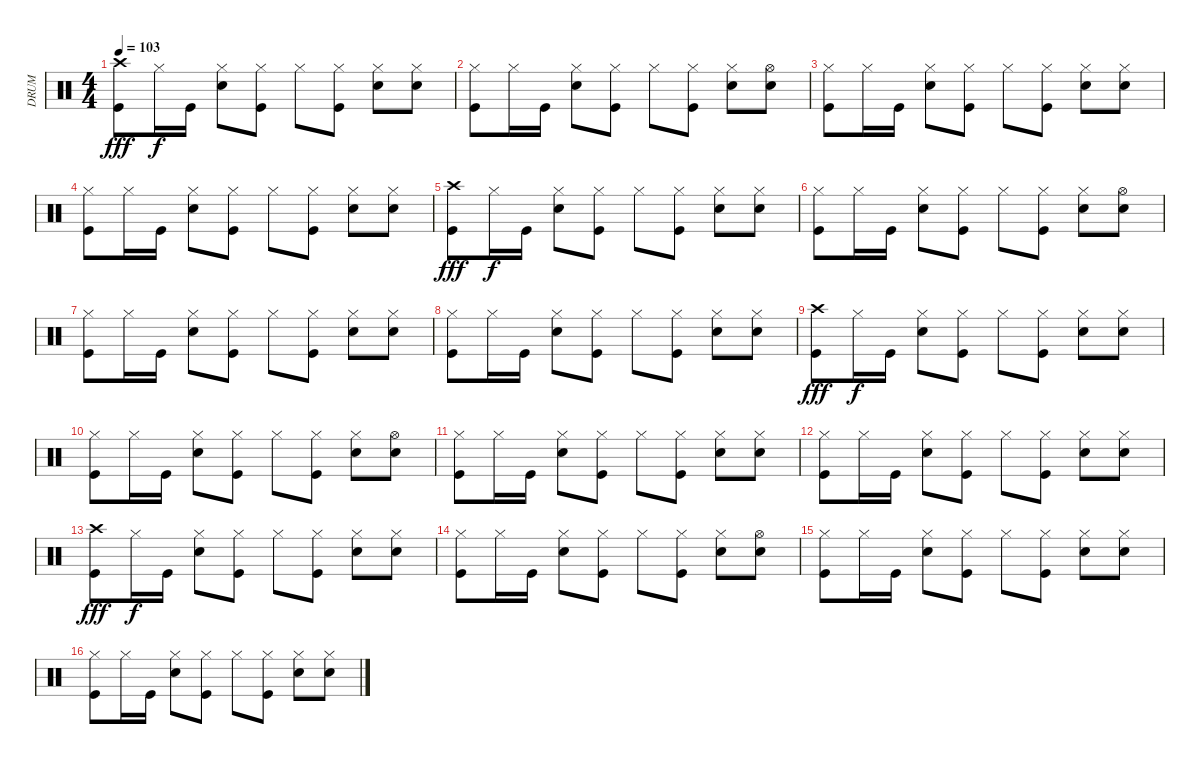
\track ("DRUM" "DRUM") {instrument percussion}
\staff {score}
\articulation defaults
\ts (4 4)
\tempo 103
\clef neutral
\ks c
("Crash high (hit)" "Kick (hit)").8{dy fff} "Hi-Hat (closed)".16{dy f} "Kick (hit)".16 ("Snare (hit) 2" "Hi-Hat (closed)").8 ("Hi-Hat (closed)" "Kick (hit)").8 "Hi-Hat (closed)".8 ("Hi-Hat (closed)" "Kick (hit)").8 ("Snare (hit) 2" "Hi-Hat (closed)").8 ("Snare (hit) 2" "Hi-Hat (closed)").8 |
("Hi-Hat (closed)" "Kick (hit)").8 "Hi-Hat (closed)".16 "Kick (hit)".16 ("Snare (hit) 2" "Hi-Hat (closed)").8 ("Hi-Hat (closed)" "Kick (hit)").8 "Hi-Hat (closed)".8 ("Hi-Hat (closed)" "Kick (hit)").8 ("Snare (hit) 2" "Hi-Hat (closed)").8 ("Snare (hit) 2" "Hi-Hat (open)").8 |
("Hi-Hat (closed)" "Kick (hit)").8 "Hi-Hat (closed)".16 "Kick (hit)".16 ("Snare (hit) 2" "Hi-Hat (closed)").8 ("Hi-Hat (closed)" "Kick (hit)").8 "Hi-Hat (closed)".8 ("Hi-Hat (closed)" "Kick (hit)").8 ("Snare (hit) 2" "Hi-Hat (closed)").8 ("Snare (hit) 2" "Hi-Hat (closed)").8 |
("Hi-Hat (closed)" "Kick (hit)").8 "Hi-Hat (closed)".16 "Kick (hit)".16 ("Snare (hit) 2" "Hi-Hat (closed)").8 ("Hi-Hat (closed)" "Kick (hit)").8 "Hi-Hat (closed)".8 ("Hi-Hat (closed)" "Kick (hit)").8 ("Snare (hit) 2" "Hi-Hat (closed)").8 ("Snare (hit) 2" "Hi-Hat (closed)").8 |
("Crash high (hit)" "Kick (hit)").8{dy fff} "Hi-Hat (closed)".16{dy f} "Kick (hit)".16 ("Snare (hit) 2" "Hi-Hat (closed)").8 ("Hi-Hat (closed)" "Kick (hit)").8 "Hi-Hat (closed)".8 ("Hi-Hat (closed)" "Kick (hit)").8 ("Snare (hit) 2" "Hi-Hat (closed)").8 ("Snare (hit) 2" "Hi-Hat (closed)").8 |
("Hi-Hat (closed)" "Kick (hit)").8 "Hi-Hat (closed)".16 "Kick (hit)".16 ("Snare (hit) 2" "Hi-Hat (closed)").8 ("Hi-Hat (closed)" "Kick (hit)").8 "Hi-Hat (closed)".8 ("Hi-Hat (closed)" "Kick (hit)").8 ("Snare (hit) 2" "Hi-Hat (closed)").8 ("Snare (hit) 2" "Hi-Hat (open)").8 |
("Hi-Hat (closed)" "Kick (hit)").8 "Hi-Hat (closed)".16 "Kick (hit)".16 ("Snare (hit) 2" "Hi-Hat (closed)").8 ("Hi-Hat (closed)" "Kick (hit)").8 "Hi-Hat (closed)".8 ("Hi-Hat (closed)" "Kick (hit)").8 ("Snare (hit) 2" "Hi-Hat (closed)").8 ("Snare (hit) 2" "Hi-Hat (closed)").8 |
("Hi-Hat (closed)" "Kick (hit)").8 "Hi-Hat (closed)".16 "Kick (hit)".16 ("Snare (hit) 2" "Hi-Hat (closed)").8 ("Hi-Hat (closed)" "Kick (hit)").8 "Hi-Hat (closed)".8 ("Hi-Hat (closed)" "Kick (hit)").8 ("Snare (hit) 2" "Hi-Hat (closed)").8 ("Snare (hit) 2" "Hi-Hat (closed)").8 |
("Crash high (hit)" "Kick (hit)").8{dy fff} "Hi-Hat (closed)".16{dy f} "Kick (hit)".16 ("Snare (hit) 2" "Hi-Hat (closed)").8 ("Hi-Hat (closed)" "Kick (hit)").8 "Hi-Hat (closed)".8 ("Hi-Hat (closed)" "Kick (hit)").8 ("Snare (hit) 2" "Hi-Hat (closed)").8 ("Snare (hit) 2" "Hi-Hat (closed)").8 |
("Hi-Hat (closed)" "Kick (hit)").8 "Hi-Hat (closed)".16 "Kick (hit)".16 ("Snare (hit) 2" "Hi-Hat (closed)").8 ("Hi-Hat (closed)" "Kick (hit)").8 "Hi-Hat (closed)".8 ("Hi-Hat (closed)" "Kick (hit)").8 ("Snare (hit) 2" "Hi-Hat (closed)").8 ("Snare (hit) 2" "Hi-Hat (open)").8 |
("Hi-Hat (closed)" "Kick (hit)").8 "Hi-Hat (closed)".16 "Kick (hit)".16 ("Snare (hit) 2" "Hi-Hat (closed)").8 ("Hi-Hat (closed)" "Kick (hit)").8 "Hi-Hat (closed)".8 ("Hi-Hat (closed)" "Kick (hit)").8 ("Snare (hit) 2" "Hi-Hat (closed)").8 ("Snare (hit) 2" "Hi-Hat (closed)").8 |
("Hi-Hat (closed)" "Kick (hit)").8 "Hi-Hat (closed)".16 "Kick (hit)".16 ("Snare (hit) 2" "Hi-Hat (closed)").8 ("Hi-Hat (closed)" "Kick (hit)").8 "Hi-Hat (closed)".8 ("Hi-Hat (closed)" "Kick (hit)").8 ("Snare (hit) 2" "Hi-Hat (closed)").8 ("Snare (hit) 2" "Hi-Hat (closed)").8 |
("Crash high (hit)" "Kick (hit)").8{dy fff} "Hi-Hat (closed)".16{dy f} "Kick (hit)".16 ("Snare (hit) 2" "Hi-Hat (closed)").8 ("Hi-Hat (closed)" "Kick (hit)").8 "Hi-Hat (closed)".8 ("Hi-Hat (closed)" "Kick (hit)").8 ("Snare (hit) 2" "Hi-Hat (closed)").8 ("Snare (hit) 2" "Hi-Hat (closed)").8 |
("Hi-Hat (closed)" "Kick (hit)").8 "Hi-Hat (closed)".16 "Kick (hit)".16 ("Snare (hit) 2" "Hi-Hat (closed)").8 ("Hi-Hat (closed)" "Kick (hit)").8 "Hi-Hat (closed)".8 ("Hi-Hat (closed)" "Kick (hit)").8 ("Snare (hit) 2" "Hi-Hat (closed)").8 ("Snare (hit) 2" "Hi-Hat (open)").8 |
("Hi-Hat (closed)" "Kick (hit)").8 "Hi-Hat (closed)".16 "Kick (hit)".16 ("Snare (hit) 2" "Hi-Hat (closed)").8 ("Hi-Hat (closed)" "Kick (hit)").8 "Hi-Hat (closed)".8 ("Hi-Hat (closed)" "Kick (hit)").8 ("Snare (hit) 2" "Hi-Hat (closed)").8 ("Snare (hit) 2" "Hi-Hat (closed)").8 |
("Hi-Hat (closed)" "Kick (hit)").8 "Hi-Hat (closed)".16 "Kick (hit)".16 ("Snare (hit) 2" "Hi-Hat (closed)").8 ("Hi-Hat (closed)" "Kick (hit)").8 "Hi-Hat (closed)".8 ("Hi-Hat (closed)" "Kick (hit)").8 ("Snare (hit) 2" "Hi-Hat (closed)").8 ("Snare (hit) 2" "Hi-Hat (closed)").8
